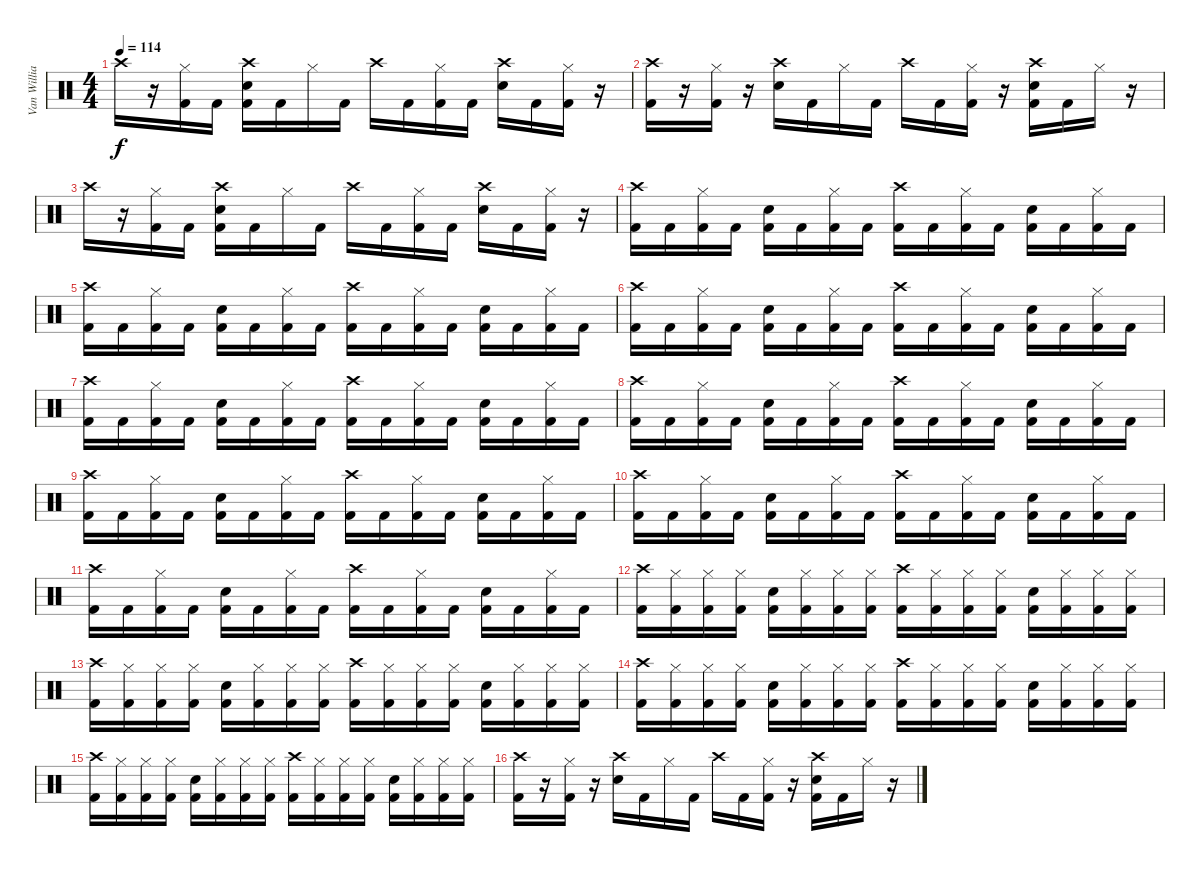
\track ("Van Williams (Drums)" "Van Willia") {instrument percussion}
\staff {score}
\articulation defaults
\ts (4 4)
\tempo 114
\clef neutral
\ks c "Crash high (hit)".16{dy f}
r.16 ("Hi-Hat (closed)" "Kick (hit) 2").16 "Kick (hit) 2".16 ("Snare (hit) 2" "Crash high (hit)" "Kick (hit) 2").16 "Kick (hit) 2".16 "Hi-Hat (closed)".16 "Kick (hit) 2".16 "Crash high (hit)".16 "Kick (hit) 2".16 ("Hi-Hat (closed)" "Kick (hit) 2").16 "Kick (hit) 2".16 ("Snare (hit) 2" "Crash high (hit)").16 "Kick (hit) 2".16 ("Hi-Hat (closed)" "Kick (hit) 2").16 r.16 |
("Crash high (hit)" "Kick (hit) 2").16 r.16 ("Hi-Hat (closed)" "Kick (hit) 2").16 r.16 ("Snare (hit) 2" "Crash high (hit)").16 "Kick (hit) 2".16 "Hi-Hat (closed)".16 "Kick (hit) 2".16 "Crash high (hit)".16 "Kick (hit) 2".16 ("Hi-Hat (closed)" "Kick (hit) 2").16 r.16 ("Snare (hit) 2" "Crash high (hit)" "Kick (hit) 2").16 "Kick (hit) 2".16 "Hi-Hat (closed)".16 r.16 |
"Crash high (hit)".16 r.16 ("Hi-Hat (closed)" "Kick (hit) 2").16 "Kick (hit) 2".16 ("Snare (hit) 2" "Crash high (hit)" "Kick (hit) 2").16 "Kick (hit) 2".16 "Hi-Hat (closed)".16 "Kick (hit) 2".16 "Crash high (hit)".16 "Kick (hit) 2".16 ("Hi-Hat (closed)" "Kick (hit) 2").16 "Kick (hit) 2".16 ("Snare (hit) 2" "Crash high (hit)").16 "Kick (hit) 2".16 ("Hi-Hat (closed)" "Kick (hit) 2").16 r.16 |
("Crash high (hit)" "Kick (hit) 2").16 "Kick (hit) 2".16 ("Hi-Hat (closed)" "Kick (hit) 2").16 "Kick (hit) 2".16 ("Snare (hit) 2" "Kick (hit) 2").16 "Kick (hit) 2".16 ("Hi-Hat (closed)" "Kick (hit) 2").16 "Kick (hit) 2".16 ("Crash high (hit)" "Kick (hit) 2").16 "Kick (hit) 2".16 ("Hi-Hat (closed)" "Kick (hit) 2").16 "Kick (hit) 2".16 ("Snare (hit) 2" "Kick (hit) 2").16 "Kick (hit) 2".16 ("Hi-Hat (closed)" "Kick (hit) 2").16 "Kick (hit) 2".16 |
("Crash high (hit)" "Kick (hit) 2").16 "Kick (hit) 2".16 ("Hi-Hat (closed)" "Kick (hit) 2").16 "Kick (hit) 2".16 ("Snare (hit) 2" "Kick (hit) 2").16 "Kick (hit) 2".16 ("Hi-Hat (closed)" "Kick (hit) 2").16 "Kick (hit) 2".16 ("Crash high (hit)" "Kick (hit) 2").16 "Kick (hit) 2".16 ("Hi-Hat (closed)" "Kick (hit) 2").16 "Kick (hit) 2".16 ("Snare (hit) 2" "Kick (hit) 2").16 "Kick (hit) 2".16 ("Hi-Hat (closed)" "Kick (hit) 2").16 "Kick (hit) 2".16 |
("Crash high (hit)" "Kick (hit) 2").16 "Kick (hit) 2".16 ("Hi-Hat (closed)" "Kick (hit) 2").16 "Kick (hit) 2".16 ("Snare (hit) 2" "Kick (hit) 2").16 "Kick (hit) 2".16 ("Hi-Hat (closed)" "Kick (hit) 2").16 "Kick (hit) 2".16 ("Crash high (hit)" "Kick (hit) 2").16 "Kick (hit) 2".16 ("Hi-Hat (closed)" "Kick (hit) 2").16 "Kick (hit) 2".16 ("Snare (hit) 2" "Kick (hit) 2").16 "Kick (hit) 2".16 ("Hi-Hat (closed)" "Kick (hit) 2").16 "Kick (hit) 2".16 |
("Crash high (hit)" "Kick (hit) 2").16 "Kick (hit) 2".16 ("Hi-Hat (closed)" "Kick (hit) 2").16 "Kick (hit) 2".16 ("Snare (hit) 2" "Kick (hit) 2").16 "Kick (hit) 2".16 ("Hi-Hat (closed)" "Kick (hit) 2").16 "Kick (hit) 2".16 ("Crash high (hit)" "Kick (hit) 2").16 "Kick (hit) 2".16 ("Hi-Hat (closed)" "Kick (hit) 2").16 "Kick (hit) 2".16 ("Snare (hit) 2" "Kick (hit) 2").16 "Kick (hit) 2".16 ("Hi-Hat (closed)" "Kick (hit) 2").16 "Kick (hit) 2".16 |
("Crash high (hit)" "Kick (hit) 2").16 "Kick (hit) 2".16 ("Hi-Hat (closed)" "Kick (hit) 2").16 "Kick (hit) 2".16 ("Snare (hit) 2" "Kick (hit) 2").16 "Kick (hit) 2".16 ("Hi-Hat (closed)" "Kick (hit) 2").16 "Kick (hit) 2".16 ("Crash high (hit)" "Kick (hit) 2").16 "Kick (hit) 2".16 ("Hi-Hat (closed)" "Kick (hit) 2").16 "Kick (hit) 2".16 ("Snare (hit) 2" "Kick (hit) 2").16 "Kick (hit) 2".16 ("Hi-Hat (closed)" "Kick (hit) 2").16 "Kick (hit) 2".16 |
("Crash high (hit)" "Kick (hit) 2").16 "Kick (hit) 2".16 ("Hi-Hat (closed)" "Kick (hit) 2").16 "Kick (hit) 2".16 ("Snare (hit) 2" "Kick (hit) 2").16 "Kick (hit) 2".16 ("Hi-Hat (closed)" "Kick (hit) 2").16 "Kick (hit) 2".16 ("Crash high (hit)" "Kick (hit) 2").16 "Kick (hit) 2".16 ("Hi-Hat (closed)" "Kick (hit) 2").16 "Kick (hit) 2".16 ("Snare (hit) 2" "Kick (hit) 2").16 "Kick (hit) 2".16 ("Hi-Hat (closed)" "Kick (hit) 2").16 "Kick (hit) 2".16 |
("Crash high (hit)" "Kick (hit) 2").16 "Kick (hit) 2".16 ("Hi-Hat (closed)" "Kick (hit) 2").16 "Kick (hit) 2".16 ("Snare (hit) 2" "Kick (hit) 2").16 "Kick (hit) 2".16 ("Hi-Hat (closed)" "Kick (hit) 2").16 "Kick (hit) 2".16 ("Crash high (hit)" "Kick (hit) 2").16 "Kick (hit) 2".16 ("Hi-Hat (closed)" "Kick (hit) 2").16 "Kick (hit) 2".16 ("Snare (hit) 2" "Kick (hit) 2").16 "Kick (hit) 2".16 ("Hi-Hat (closed)" "Kick (hit) 2").16 "Kick (hit) 2".16 |
("Crash high (hit)" "Kick (hit) 2").16 "Kick (hit) 2".16 ("Hi-Hat (closed)" "Kick (hit) 2").16 "Kick (hit) 2".16 ("Snare (hit) 2" "Kick (hit) 2").16 "Kick (hit) 2".16 ("Hi-Hat (closed)" "Kick (hit) 2").16 "Kick (hit) 2".16 ("Crash high (hit)" "Kick (hit) 2").16 "Kick (hit) 2".16 ("Hi-Hat (closed)" "Kick (hit) 2").16 "Kick (hit) 2".16 ("Snare (hit) 2" "Kick (hit) 2").16 "Kick (hit) 2".16 ("Hi-Hat (closed)" "Kick (hit) 2").16 "Kick (hit) 2".16 |
("Crash high (hit)" "Kick (hit) 2").16 ("Hi-Hat (closed)" "Kick (hit) 2").16 ("Hi-Hat (closed)" "Kick (hit) 2").16 ("Hi-Hat (closed)" "Kick (hit) 2").16 ("Snare (hit) 2" "Kick (hit) 2").16 ("Hi-Hat (closed)" "Kick (hit) 2").16 ("Hi-Hat (closed)" "Kick (hit) 2").16 ("Hi-Hat (closed)" "Kick (hit) 2").16 ("Crash high (hit)" "Kick (hit) 2").16 ("Hi-Hat (closed)" "Kick (hit) 2").16 ("Hi-Hat (closed)" "Kick (hit) 2").16 ("Hi-Hat (closed)" "Kick (hit) 2").16 ("Snare (hit) 2" "Kick (hit) 2").16 ("Hi-Hat (closed)" "Kick (hit) 2").16 ("Hi-Hat (closed)" "Kick (hit) 2").16 ("Hi-Hat (closed)" "Kick (hit) 2").16 |
("Crash high (hit)" "Kick (hit) 2").16 ("Hi-Hat (closed)" "Kick (hit) 2").16 ("Hi-Hat (closed)" "Kick (hit) 2").16 ("Hi-Hat (closed)" "Kick (hit) 2").16 ("Snare (hit) 2" "Kick (hit) 2").16 ("Hi-Hat (closed)" "Kick (hit) 2").16 ("Hi-Hat (closed)" "Kick (hit) 2").16 ("Hi-Hat (closed)" "Kick (hit) 2").16 ("Crash high (hit)" "Kick (hit) 2").16 ("Hi-Hat (closed)" "Kick (hit) 2").16 ("Hi-Hat (closed)" "Kick (hit) 2").16 ("Hi-Hat (closed)" "Kick (hit) 2").16 ("Snare (hit) 2" "Kick (hit) 2").16 ("Hi-Hat (closed)" "Kick (hit) 2").16 ("Hi-Hat (closed)" "Kick (hit) 2").16 ("Hi-Hat (closed)" "Kick (hit) 2").16 |
("Crash high (hit)" "Kick (hit) 2").16 ("Hi-Hat (closed)" "Kick (hit) 2").16 ("Hi-Hat (closed)" "Kick (hit) 2").16 ("Hi-Hat (closed)" "Kick (hit) 2").16 ("Snare (hit) 2" "Kick (hit) 2").16 ("Hi-Hat (closed)" "Kick (hit) 2").16 ("Hi-Hat (closed)" "Kick (hit) 2").16 ("Hi-Hat (closed)" "Kick (hit) 2").16 ("Crash high (hit)" "Kick (hit) 2").16 ("Hi-Hat (closed)" "Kick (hit) 2").16 ("Hi-Hat (closed)" "Kick (hit) 2").16 ("Hi-Hat (closed)" "Kick (hit) 2").16 ("Snare (hit) 2" "Kick (hit) 2").16 ("Hi-Hat (closed)" "Kick (hit) 2").16 ("Hi-Hat (closed)" "Kick (hit) 2").16 ("Hi-Hat (closed)" "Kick (hit) 2").16 |
("Crash high (hit)" "Kick (hit) 2").16 ("Hi-Hat (closed)" "Kick (hit) 2").16 ("Hi-Hat (closed)" "Kick (hit) 2").16 ("Hi-Hat (closed)" "Kick (hit) 2").16 ("Snare (hit) 2" "Kick (hit) 2").16 ("Hi-Hat (closed)" "Kick (hit) 2").16 ("Hi-Hat (closed)" "Kick (hit) 2").16 ("Hi-Hat (closed)" "Kick (hit) 2").16 ("Crash high (hit)" "Kick (hit) 2").16 ("Hi-Hat (closed)" "Kick (hit) 2").16 ("Hi-Hat (closed)" "Kick (hit) 2").16 ("Hi-Hat (closed)" "Kick (hit) 2").16 ("Snare (hit) 2" "Kick (hit) 2").16 ("Hi-Hat (closed)" "Kick (hit) 2").16 ("Hi-Hat (closed)" "Kick (hit) 2").16 ("Hi-Hat (closed)" "Kick (hit) 2").16 |
("Crash high (hit)" "Kick (hit) 2").16 r.16 ("Hi-Hat (closed)" "Kick (hit) 2").16 r.16 ("Snare (hit) 2" "Crash high (hit)").16 "Kick (hit) 2".16 "Hi-Hat (closed)".16 "Kick (hit) 2".16 "Crash high (hit)".16 "Kick (hit) 2".16 ("Hi-Hat (closed)" "Kick (hit) 2").16 r.16 ("Snare (hit) 2" "Crash high (hit)" "Kick (hit) 2").16 "Kick (hit) 2".16 "Hi-Hat (closed)".16 r.16
